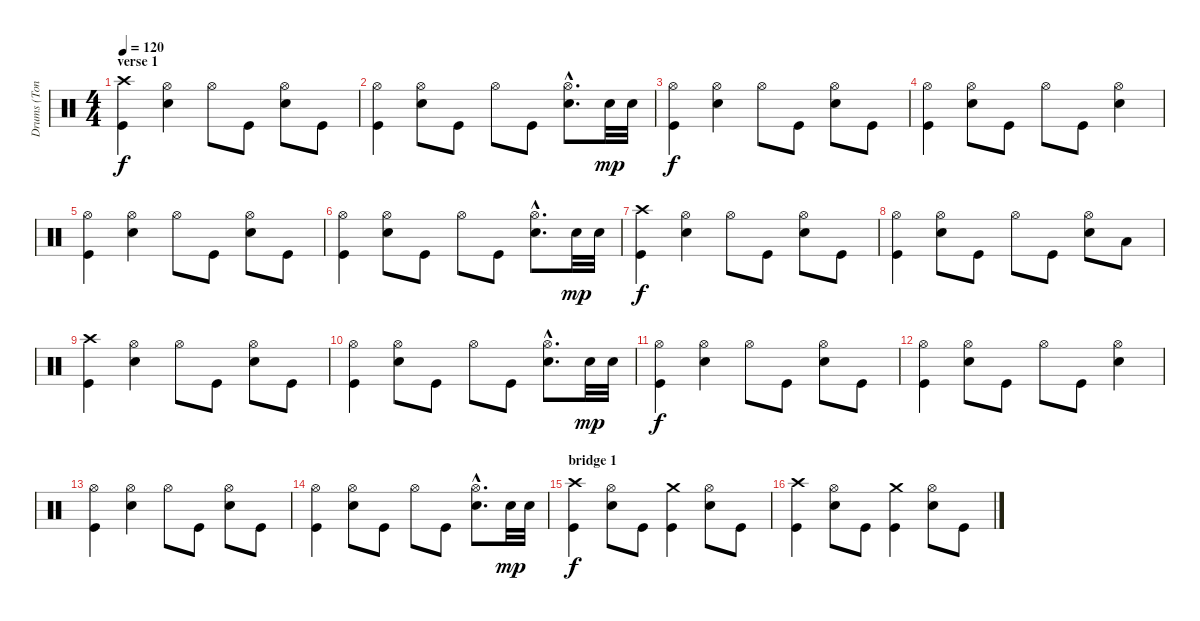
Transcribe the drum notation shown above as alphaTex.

\track ("Drums (Tony McCarroll)" "Drums (Ton") {instrument percussion}
\staff {score}
\articulation defaults
\ts (4 4)
\section ("" "verse 1")
\tempo 120
\clef neutral
\ks c
("Crash high (hit)" "Kick (hit)").4{dy f} ("Hi-Hat (open)" "Snare (hit) 2").4 "Hi-Hat (open)".8 "Kick (hit)".8 ("Hi-Hat (open)" "Snare (hit) 2").8 "Kick (hit)".8 |
("Hi-Hat (open)" "Kick (hit)").4 ("Hi-Hat (open)" "Snare (hit) 2").8 "Kick (hit)".8 "Hi-Hat (open)".8 "Kick (hit)".8 ("Hi-Hat (open)"{hac} "Snare (hit) 2"{hac}).8{d} "Snare (hit) 2".32{dy mp} "Snare (hit) 2".32 |
("Hi-Hat (open)" "Kick (hit)").4{dy f} ("Hi-Hat (open)" "Snare (hit) 2").4 "Hi-Hat (open)".8 "Kick (hit)".8 ("Hi-Hat (open)" "Snare (hit) 2").8 "Kick (hit)".8 |
("Hi-Hat (open)" "Kick (hit)").4 ("Hi-Hat (open)" "Snare (hit) 2").8 "Kick (hit)".8 "Hi-Hat (open)".8 "Kick (hit)".8 ("Hi-Hat (open)" "Snare (hit) 2").4 |
("Hi-Hat (open)" "Kick (hit)").4 ("Hi-Hat (open)" "Snare (hit) 2").4 "Hi-Hat (open)".8 "Kick (hit)".8 ("Hi-Hat (open)" "Snare (hit) 2").8 "Kick (hit)".8 |
("Hi-Hat (open)" "Kick (hit)").4 ("Hi-Hat (open)" "Snare (hit) 2").8 "Kick (hit)".8 "Hi-Hat (open)".8 "Kick (hit)".8 ("Hi-Hat (open)"{hac} "Snare (hit) 2"{hac}).8{d} "Snare (hit) 2".32{dy mp} "Snare (hit) 2".32 |
("Crash high (hit)" "Kick (hit)").4{dy f} ("Hi-Hat (open)" "Snare (hit) 2").4 "Hi-Hat (open)".8 "Kick (hit)".8 ("Hi-Hat (open)" "Snare (hit) 2").8 "Kick (hit)".8 |
("Hi-Hat (open)" "Kick (hit)").4 ("Hi-Hat (open)" "Snare (hit) 2").8 "Kick (hit)".8 "Hi-Hat (open)".8 "Kick (hit)".8 ("Hi-Hat (open)" "Snare (hit) 2").8 "Low Tom (hit)".8 |
("Crash high (hit)" "Kick (hit)").4 ("Hi-Hat (open)" "Snare (hit) 2").4 "Hi-Hat (open)".8 "Kick (hit)".8 ("Hi-Hat (open)" "Snare (hit) 2").8 "Kick (hit)".8 |
("Hi-Hat (open)" "Kick (hit)").4 ("Hi-Hat (open)" "Snare (hit) 2").8 "Kick (hit)".8 "Hi-Hat (open)".8 "Kick (hit)".8 ("Hi-Hat (open)"{hac} "Snare (hit) 2"{hac}).8{d} "Snare (hit) 2".32{dy mp} "Snare (hit) 2".32 |
("Hi-Hat (open)" "Kick (hit)").4{dy f} ("Hi-Hat (open)" "Snare (hit) 2").4 "Hi-Hat (open)".8 "Kick (hit)".8 ("Hi-Hat (open)" "Snare (hit) 2").8 "Kick (hit)".8 |
("Hi-Hat (open)" "Kick (hit)").4 ("Hi-Hat (open)" "Snare (hit) 2").8 "Kick (hit)".8 "Hi-Hat (open)".8 "Kick (hit)".8 ("Hi-Hat (open)" "Snare (hit) 2").4 |
("Hi-Hat (open)" "Kick (hit)").4 ("Hi-Hat (open)" "Snare (hit) 2").4 "Hi-Hat (open)".8 "Kick (hit)".8 ("Hi-Hat (open)" "Snare (hit) 2").8 "Kick (hit)".8 |
("Hi-Hat (open)" "Kick (hit)").4 ("Hi-Hat (open)" "Snare (hit) 2").8 "Kick (hit)".8 "Hi-Hat (open)".8 "Kick (hit)".8 ("Hi-Hat (open)"{hac} "Snare (hit) 2"{hac}).8{d} "Snare (hit) 2".32{dy mp} "Snare (hit) 2".32 |
\section ("" "bridge 1")
("Crash high (hit)" "Kick (hit)").4{dy f} ("Hi-Hat (open)" "Snare (hit) 2").8 "Kick (hit)".8 ("Crash medium (hit)" "Kick (hit)").4 ("Hi-Hat (open)" "Snare (hit) 2").8 "Kick (hit)".8 |
("Crash high (hit)" "Kick (hit)").4 ("Hi-Hat (open)" "Snare (hit) 2").8 "Kick (hit)".8 ("Crash medium (hit)" "Kick (hit)").4 ("Hi-Hat (open)" "Snare (hit) 2").8 "Kick (hit)".8
